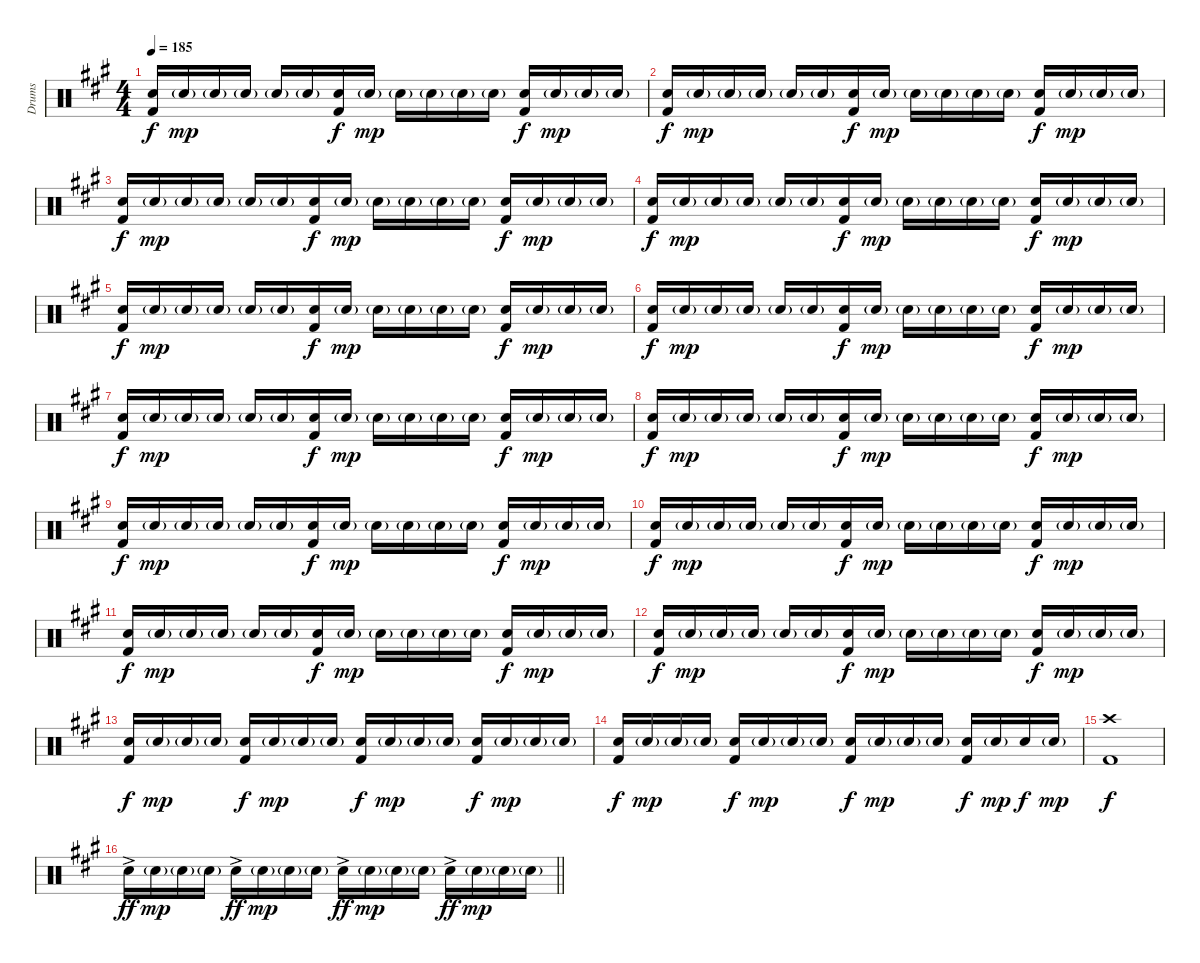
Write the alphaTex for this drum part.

\track ("Drums" "Drums") {instrument percussion}
\staff {score}
\articulation defaults
\ts (4 4)
\tempo 185
\clef neutral
\ks f#minor
("Kick (hit) 2" "Electric Snare (hit)").16{dy f} "Electric Snare (hit)"{g}.16{dy mp} "Electric Snare (hit)"{g}.16 "Electric Snare (hit)"{g}.16 "Electric Snare (hit)"{g}.16 "Electric Snare (hit)"{g}.16 ("Kick (hit) 2" "Electric Snare (hit)").16{dy f} "Electric Snare (hit)"{g}.16{dy mp} "Electric Snare (hit)"{g}.16 "Electric Snare (hit)"{g}.16 "Electric Snare (hit)"{g}.16 "Electric Snare (hit)"{g}.16 ("Kick (hit) 2" "Electric Snare (hit)").16{dy f} "Electric Snare (hit)"{g}.16{dy mp} "Electric Snare (hit)"{g}.16 "Electric Snare (hit)"{g}.16 |
("Kick (hit) 2" "Electric Snare (hit)").16{dy f} "Electric Snare (hit)"{g}.16{dy mp} "Electric Snare (hit)"{g}.16 "Electric Snare (hit)"{g}.16 "Electric Snare (hit)"{g}.16 "Electric Snare (hit)"{g}.16 ("Kick (hit) 2" "Electric Snare (hit)").16{dy f} "Electric Snare (hit)"{g}.16{dy mp} "Electric Snare (hit)"{g}.16 "Electric Snare (hit)"{g}.16 "Electric Snare (hit)"{g}.16 "Electric Snare (hit)"{g}.16 ("Kick (hit) 2" "Electric Snare (hit)").16{dy f} "Electric Snare (hit)"{g}.16{dy mp} "Electric Snare (hit)"{g}.16 "Electric Snare (hit)"{g}.16 |
("Kick (hit) 2" "Electric Snare (hit)").16{dy f} "Electric Snare (hit)"{g}.16{dy mp} "Electric Snare (hit)"{g}.16 "Electric Snare (hit)"{g}.16 "Electric Snare (hit)"{g}.16 "Electric Snare (hit)"{g}.16 ("Kick (hit) 2" "Electric Snare (hit)").16{dy f} "Electric Snare (hit)"{g}.16{dy mp} "Electric Snare (hit)"{g}.16 "Electric Snare (hit)"{g}.16 "Electric Snare (hit)"{g}.16 "Electric Snare (hit)"{g}.16 ("Kick (hit) 2" "Electric Snare (hit)").16{dy f} "Electric Snare (hit)"{g}.16{dy mp} "Electric Snare (hit)"{g}.16 "Electric Snare (hit)"{g}.16 |
("Kick (hit) 2" "Electric Snare (hit)").16{dy f} "Electric Snare (hit)"{g}.16{dy mp} "Electric Snare (hit)"{g}.16 "Electric Snare (hit)"{g}.16 "Electric Snare (hit)"{g}.16 "Electric Snare (hit)"{g}.16 ("Kick (hit) 2" "Electric Snare (hit)").16{dy f} "Electric Snare (hit)"{g}.16{dy mp} "Electric Snare (hit)"{g}.16 "Electric Snare (hit)"{g}.16 "Electric Snare (hit)"{g}.16 "Electric Snare (hit)"{g}.16 ("Kick (hit) 2" "Electric Snare (hit)").16{dy f} "Electric Snare (hit)"{g}.16{dy mp} "Electric Snare (hit)"{g}.16 "Electric Snare (hit)"{g}.16 |
("Kick (hit) 2" "Electric Snare (hit)").16{dy f} "Electric Snare (hit)"{g}.16{dy mp} "Electric Snare (hit)"{g}.16 "Electric Snare (hit)"{g}.16 "Electric Snare (hit)"{g}.16 "Electric Snare (hit)"{g}.16 ("Kick (hit) 2" "Electric Snare (hit)").16{dy f} "Electric Snare (hit)"{g}.16{dy mp} "Electric Snare (hit)"{g}.16 "Electric Snare (hit)"{g}.16 "Electric Snare (hit)"{g}.16 "Electric Snare (hit)"{g}.16 ("Kick (hit) 2" "Electric Snare (hit)").16{dy f} "Electric Snare (hit)"{g}.16{dy mp} "Electric Snare (hit)"{g}.16 "Electric Snare (hit)"{g}.16 |
("Kick (hit) 2" "Electric Snare (hit)").16{dy f} "Electric Snare (hit)"{g}.16{dy mp} "Electric Snare (hit)"{g}.16 "Electric Snare (hit)"{g}.16 "Electric Snare (hit)"{g}.16 "Electric Snare (hit)"{g}.16 ("Kick (hit) 2" "Electric Snare (hit)").16{dy f} "Electric Snare (hit)"{g}.16{dy mp} "Electric Snare (hit)"{g}.16 "Electric Snare (hit)"{g}.16 "Electric Snare (hit)"{g}.16 "Electric Snare (hit)"{g}.16 ("Kick (hit) 2" "Electric Snare (hit)").16{dy f} "Electric Snare (hit)"{g}.16{dy mp} "Electric Snare (hit)"{g}.16 "Electric Snare (hit)"{g}.16 |
("Kick (hit) 2" "Electric Snare (hit)").16{dy f} "Electric Snare (hit)"{g}.16{dy mp} "Electric Snare (hit)"{g}.16 "Electric Snare (hit)"{g}.16 "Electric Snare (hit)"{g}.16 "Electric Snare (hit)"{g}.16 ("Kick (hit) 2" "Electric Snare (hit)").16{dy f} "Electric Snare (hit)"{g}.16{dy mp} "Electric Snare (hit)"{g}.16 "Electric Snare (hit)"{g}.16 "Electric Snare (hit)"{g}.16 "Electric Snare (hit)"{g}.16 ("Kick (hit) 2" "Electric Snare (hit)").16{dy f} "Electric Snare (hit)"{g}.16{dy mp} "Electric Snare (hit)"{g}.16 "Electric Snare (hit)"{g}.16 |
("Kick (hit) 2" "Electric Snare (hit)").16{dy f} "Electric Snare (hit)"{g}.16{dy mp} "Electric Snare (hit)"{g}.16 "Electric Snare (hit)"{g}.16 "Electric Snare (hit)"{g}.16 "Electric Snare (hit)"{g}.16 ("Kick (hit) 2" "Electric Snare (hit)").16{dy f} "Electric Snare (hit)"{g}.16{dy mp} "Electric Snare (hit)"{g}.16 "Electric Snare (hit)"{g}.16 "Electric Snare (hit)"{g}.16 "Electric Snare (hit)"{g}.16 ("Kick (hit) 2" "Electric Snare (hit)").16{dy f} "Electric Snare (hit)"{g}.16{dy mp} "Electric Snare (hit)"{g}.16 "Electric Snare (hit)"{g}.16 |
("Kick (hit) 2" "Electric Snare (hit)").16{dy f} "Electric Snare (hit)"{g}.16{dy mp} "Electric Snare (hit)"{g}.16 "Electric Snare (hit)"{g}.16 "Electric Snare (hit)"{g}.16 "Electric Snare (hit)"{g}.16 ("Kick (hit) 2" "Electric Snare (hit)").16{dy f} "Electric Snare (hit)"{g}.16{dy mp} "Electric Snare (hit)"{g}.16 "Electric Snare (hit)"{g}.16 "Electric Snare (hit)"{g}.16 "Electric Snare (hit)"{g}.16 ("Kick (hit) 2" "Electric Snare (hit)").16{dy f} "Electric Snare (hit)"{g}.16{dy mp} "Electric Snare (hit)"{g}.16 "Electric Snare (hit)"{g}.16 |
("Kick (hit) 2" "Electric Snare (hit)").16{dy f} "Electric Snare (hit)"{g}.16{dy mp} "Electric Snare (hit)"{g}.16 "Electric Snare (hit)"{g}.16 "Electric Snare (hit)"{g}.16 "Electric Snare (hit)"{g}.16 ("Kick (hit) 2" "Electric Snare (hit)").16{dy f} "Electric Snare (hit)"{g}.16{dy mp} "Electric Snare (hit)"{g}.16 "Electric Snare (hit)"{g}.16 "Electric Snare (hit)"{g}.16 "Electric Snare (hit)"{g}.16 ("Kick (hit) 2" "Electric Snare (hit)").16{dy f} "Electric Snare (hit)"{g}.16{dy mp} "Electric Snare (hit)"{g}.16 "Electric Snare (hit)"{g}.16 |
("Kick (hit) 2" "Electric Snare (hit)").16{dy f} "Electric Snare (hit)"{g}.16{dy mp} "Electric Snare (hit)"{g}.16 "Electric Snare (hit)"{g}.16 "Electric Snare (hit)"{g}.16 "Electric Snare (hit)"{g}.16 ("Kick (hit) 2" "Electric Snare (hit)").16{dy f} "Electric Snare (hit)"{g}.16{dy mp} "Electric Snare (hit)"{g}.16 "Electric Snare (hit)"{g}.16 "Electric Snare (hit)"{g}.16 "Electric Snare (hit)"{g}.16 ("Kick (hit) 2" "Electric Snare (hit)").16{dy f} "Electric Snare (hit)"{g}.16{dy mp} "Electric Snare (hit)"{g}.16 "Electric Snare (hit)"{g}.16 |
("Kick (hit) 2" "Electric Snare (hit)").16{dy f} "Electric Snare (hit)"{g}.16{dy mp} "Electric Snare (hit)"{g}.16 "Electric Snare (hit)"{g}.16 "Electric Snare (hit)"{g}.16 "Electric Snare (hit)"{g}.16 ("Kick (hit) 2" "Electric Snare (hit)").16{dy f} "Electric Snare (hit)"{g}.16{dy mp} "Electric Snare (hit)"{g}.16 "Electric Snare (hit)"{g}.16 "Electric Snare (hit)"{g}.16 "Electric Snare (hit)"{g}.16 ("Kick (hit) 2" "Electric Snare (hit)").16{dy f} "Electric Snare (hit)"{g}.16{dy mp} "Electric Snare (hit)"{g}.16 "Electric Snare (hit)"{g}.16 |
("Kick (hit) 2" "Electric Snare (hit)").16{dy f} "Electric Snare (hit)"{g}.16{dy mp} "Electric Snare (hit)"{g}.16 "Electric Snare (hit)"{g}.16 ("Kick (hit) 2" "Electric Snare (hit)").16{dy f} "Electric Snare (hit)"{g}.16{dy mp} "Electric Snare (hit)"{g}.16 "Electric Snare (hit)"{g}.16 ("Kick (hit) 2" "Electric Snare (hit)").16{dy f} "Electric Snare (hit)"{g}.16{dy mp} "Electric Snare (hit)"{g}.16 "Electric Snare (hit)"{g}.16 ("Kick (hit) 2" "Electric Snare (hit)").16{dy f} "Electric Snare (hit)"{g}.16{dy mp} "Electric Snare (hit)"{g}.16 "Electric Snare (hit)"{g}.16 |
("Kick (hit) 2" "Electric Snare (hit)").16{dy f} "Electric Snare (hit)"{g}.16{dy mp} "Electric Snare (hit)"{g}.16 "Electric Snare (hit)"{g}.16 ("Kick (hit) 2" "Electric Snare (hit)").16{dy f} "Electric Snare (hit)"{g}.16{dy mp} "Electric Snare (hit)"{g}.16 "Electric Snare (hit)"{g}.16 ("Kick (hit) 2" "Electric Snare (hit)").16{dy f} "Electric Snare (hit)"{g}.16{dy mp} "Electric Snare (hit)"{g}.16 "Electric Snare (hit)"{g}.16 ("Kick (hit) 2" "Electric Snare (hit)").16{dy f} "Electric Snare (hit)"{g}.16{dy mp} "Electric Snare (hit)".16{dy f} "Electric Snare (hit)"{g}.16{dy mp} |
("Crash high (hit)" "Kick (hit) 2").1{dy f} |
\barLineRight lightlight "Electric Snare (hit)"{ac}.16{dy ff} "Electric Snare (hit)"{g}.16{dy mp} "Electric Snare (hit)"{g}.16 "Electric Snare (hit)"{g}.16 "Electric Snare (hit)"{ac}.16{dy ff} "Electric Snare (hit)"{g}.16{dy mp} "Electric Snare (hit)"{g}.16 "Electric Snare (hit)"{g}.16 "Electric Snare (hit)"{ac}.16{dy ff} "Electric Snare (hit)"{g}.16{dy mp} "Electric Snare (hit)"{g}.16 "Electric Snare (hit)"{g}.16 "Electric Snare (hit)"{ac}.16{dy ff} "Electric Snare (hit)"{g}.16{dy mp} "Electric Snare (hit)"{g}.16 "Electric Snare (hit)"{g}.16
